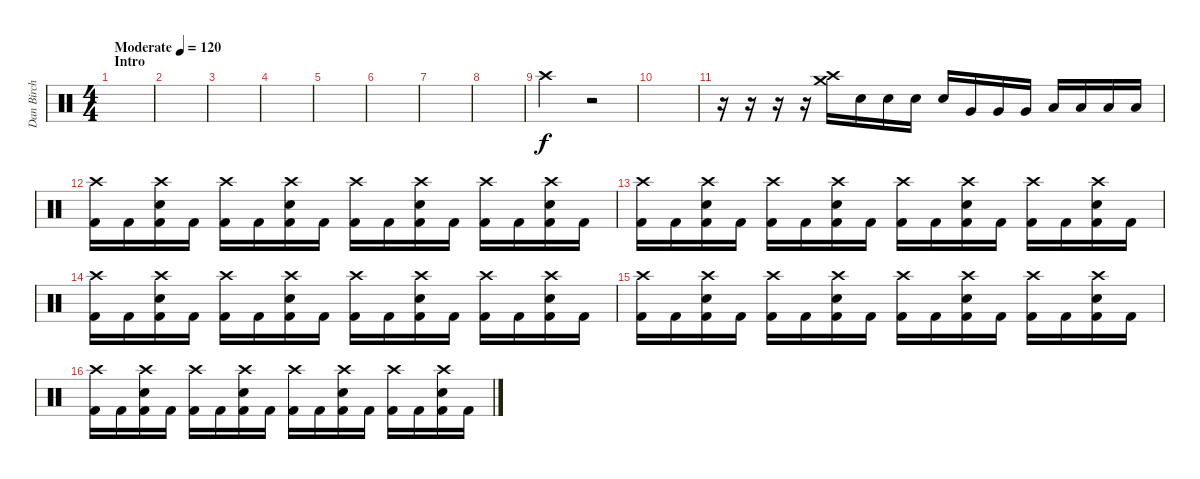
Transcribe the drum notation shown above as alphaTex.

\track ("Dan Birch" "Dan Birch") {instrument percussion}
\staff {score}
\articulation defaults
\ts (4 4)
\section ("" "Intro")
\tempo (120 "Moderate")
\clef neutral
\ks c
|
|
|
|
|
|
|
|
"Crash high (hit)".2 r.2 |
|
r.16 r.16 r.16 r.16 ("Crash high (hit)" "Crash medium (hit)").16 "Snare (hit) 2".16 "Snare (hit) 2".16 "Snare (hit) 2".16 "Snare (hit) 2".16 "Very Low Tom (hit)".16 "Very Low Tom (hit)".16 "Very Low Tom (hit)".16 "Low Tom (hit)".16 "Low Tom (hit)".16 "Low Tom (hit)".16 "Low Floor Tom (hit)".16 |
("Crash high (hit)" "Kick (hit) 2").16 "Kick (hit) 2".16 ("Crash high (hit)" "Kick (hit) 2" "Snare (hit) 2").16 "Kick (hit) 2".16 ("Crash high (hit)" "Kick (hit) 2").16 "Kick (hit) 2".16 ("Crash high (hit)" "Kick (hit) 2" "Snare (hit) 2").16 "Kick (hit) 2".16 ("Crash high (hit)" "Kick (hit) 2").16 "Kick (hit) 2".16 ("Crash high (hit)" "Kick (hit) 2" "Snare (hit) 2").16 "Kick (hit) 2".16 ("Crash high (hit)" "Kick (hit) 2").16 "Kick (hit) 2".16 ("Crash high (hit)" "Kick (hit) 2" "Snare (hit) 2").16 "Kick (hit) 2".16 |
("Crash high (hit)" "Kick (hit) 2").16 "Kick (hit) 2".16 ("Crash high (hit)" "Kick (hit) 2" "Snare (hit) 2").16 "Kick (hit) 2".16 ("Crash high (hit)" "Kick (hit) 2").16 "Kick (hit) 2".16 ("Crash high (hit)" "Kick (hit) 2" "Snare (hit) 2").16 "Kick (hit) 2".16 ("Crash high (hit)" "Kick (hit) 2").16 "Kick (hit) 2".16 ("Crash high (hit)" "Kick (hit) 2" "Snare (hit) 2").16 "Kick (hit) 2".16 ("Crash high (hit)" "Kick (hit) 2").16 "Kick (hit) 2".16 ("Crash high (hit)" "Kick (hit) 2" "Snare (hit) 2").16 "Kick (hit) 2".16 |
("Crash high (hit)" "Kick (hit) 2").16 "Kick (hit) 2".16 ("Crash high (hit)" "Kick (hit) 2" "Snare (hit) 2").16 "Kick (hit) 2".16 ("Crash high (hit)" "Kick (hit) 2").16 "Kick (hit) 2".16 ("Crash high (hit)" "Kick (hit) 2" "Snare (hit) 2").16 "Kick (hit) 2".16 ("Crash high (hit)" "Kick (hit) 2").16 "Kick (hit) 2".16 ("Crash high (hit)" "Kick (hit) 2" "Snare (hit) 2").16 "Kick (hit) 2".16 ("Crash high (hit)" "Kick (hit) 2").16 "Kick (hit) 2".16 ("Crash high (hit)" "Kick (hit) 2" "Snare (hit) 2").16 "Kick (hit) 2".16 |
("Crash high (hit)" "Kick (hit) 2").16 "Kick (hit) 2".16 ("Crash high (hit)" "Kick (hit) 2" "Snare (hit) 2").16 "Kick (hit) 2".16 ("Crash high (hit)" "Kick (hit) 2").16 "Kick (hit) 2".16 ("Crash high (hit)" "Kick (hit) 2" "Snare (hit) 2").16 "Kick (hit) 2".16 ("Crash high (hit)" "Kick (hit) 2").16 "Kick (hit) 2".16 ("Crash high (hit)" "Kick (hit) 2" "Snare (hit) 2").16 "Kick (hit) 2".16 ("Crash high (hit)" "Kick (hit) 2").16 "Kick (hit) 2".16 ("Crash high (hit)" "Kick (hit) 2" "Snare (hit) 2").16 "Kick (hit) 2".16 |
("Crash high (hit)" "Kick (hit) 2").16 "Kick (hit) 2".16 ("Crash high (hit)" "Kick (hit) 2" "Snare (hit) 2").16 "Kick (hit) 2".16 ("Crash high (hit)" "Kick (hit) 2").16 "Kick (hit) 2".16 ("Crash high (hit)" "Kick (hit) 2" "Snare (hit) 2").16 "Kick (hit) 2".16 ("Crash high (hit)" "Kick (hit) 2").16 "Kick (hit) 2".16 ("Crash high (hit)" "Kick (hit) 2" "Snare (hit) 2").16 "Kick (hit) 2".16 ("Crash high (hit)" "Kick (hit) 2").16 "Kick (hit) 2".16 ("Crash high (hit)" "Kick (hit) 2" "Snare (hit) 2").16 "Kick (hit) 2".16
